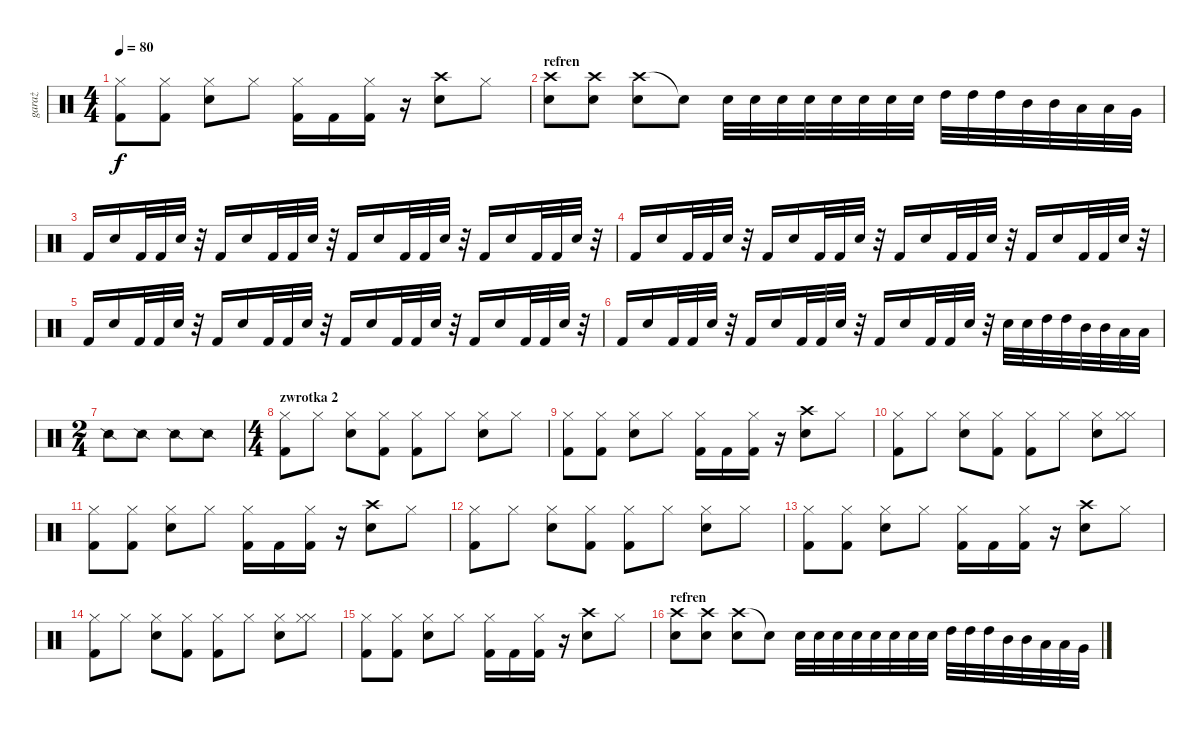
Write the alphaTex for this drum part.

\track ("garaż" "garaż") {instrument percussion}
\staff {score}
\articulation defaults
\ts (4 4)
\tempo 80
\clef neutral
\ks c
("Hi-Hat (closed)" "Kick (hit) 2").8{dy f} ("Hi-Hat (closed)" "Kick (hit) 2").8 ("Hi-Hat (closed)" "Snare (hit) 2").8 "Hi-Hat (closed)".8 ("Hi-Hat (closed)" "Kick (hit) 2").16 "Kick (hit) 2".16 ("Hi-Hat (closed)" "Kick (hit) 2").16 r.16 ("Crash high (hit)" "Snare (hit) 2").8 "Hi-Hat (closed)".8 |
\section ("" "refren")
("Crash high (hit)" "Snare (hit) 2").8 ("Crash high (hit)" "Snare (hit) 2").8 ("Crash high (hit)" "Snare (hit) 2").8 "Snare (hit)"{t}.8 "Snare (hit) 2".32 "Snare (hit) 2".32 "Snare (hit) 2".32 "Snare (hit) 2".32 "Snare (hit) 2".32 "Snare (hit) 2".32 "Snare (hit) 2".32 "Snare (hit) 2".32 "High Tom (hit)".32 "High Tom (hit)".32 "High Tom (hit)".32 "Mid Tom (hit)".32 "Mid Tom (hit)".32 "Low Tom (hit)".32 "Low Tom (hit)".32 "Very Low Tom (hit)".32 |
"Kick (hit) 2".16 "Snare (hit) 2".16 "Kick (hit) 2".32 "Kick (hit) 2".32 "Snare (hit) 2".32 r.32 "Kick (hit) 2".16 "Snare (hit) 2".16 "Kick (hit) 2".32 "Kick (hit) 2".32 "Snare (hit) 2".32 r.32 "Kick (hit) 2".16 "Snare (hit) 2".16 "Kick (hit) 2".32 "Kick (hit) 2".32 "Snare (hit) 2".32 r.32 "Kick (hit) 2".16 "Snare (hit) 2".16 "Kick (hit) 2".32 "Kick (hit) 2".32 "Snare (hit) 2".32 r.32 |
"Kick (hit) 2".16 "Snare (hit) 2".16 "Kick (hit) 2".32 "Kick (hit) 2".32 "Snare (hit) 2".32 r.32 "Kick (hit) 2".16 "Snare (hit) 2".16 "Kick (hit) 2".32 "Kick (hit) 2".32 "Snare (hit) 2".32 r.32 "Kick (hit) 2".16 "Snare (hit) 2".16 "Kick (hit) 2".32 "Kick (hit) 2".32 "Snare (hit) 2".32 r.32 "Kick (hit) 2".16 "Snare (hit) 2".16 "Kick (hit) 2".32 "Kick (hit) 2".32 "Snare (hit) 2".32 r.32 |
"Kick (hit) 2".16 "Snare (hit) 2".16 "Kick (hit) 2".32 "Kick (hit) 2".32 "Snare (hit) 2".32 r.32 "Kick (hit) 2".16 "Snare (hit) 2".16 "Kick (hit) 2".32 "Kick (hit) 2".32 "Snare (hit) 2".32 r.32 "Kick (hit) 2".16 "Snare (hit) 2".16 "Kick (hit) 2".32 "Kick (hit) 2".32 "Snare (hit) 2".32 r.32 "Kick (hit) 2".16 "Snare (hit) 2".16 "Kick (hit) 2".32 "Kick (hit) 2".32 "Snare (hit) 2".32 r.32 |
"Kick (hit) 2".16 "Snare (hit) 2".16 "Kick (hit) 2".32 "Kick (hit) 2".32 "Snare (hit) 2".32 r.32 "Kick (hit) 2".16 "Snare (hit) 2".16 "Kick (hit) 2".32 "Kick (hit) 2".32 "Snare (hit) 2".32 r.32 "Kick (hit) 2".16 "Snare (hit) 2".16 "Kick (hit) 2".32 "Kick (hit) 2".32 "Snare (hit) 2".32 r.32 "Snare (hit) 2".32 "Snare (hit) 2".32 "High Tom (hit)".32 "High Tom (hit)".32 "Mid Tom (hit)".32 "Mid Tom (hit)".32 "Low Tom (hit)".32 "Low Tom (hit)".32 |
\ts (2 4)
"Snare (side stick) 2".8 "Snare (side stick) 2".8 "Snare (side stick) 2".8 "Snare (side stick) 2".8 |
\ts (4 4)
\section ("" "zwrotka 2")
("Hi-Hat (closed)" "Kick (hit) 2").8 "Hi-Hat (closed)".8 ("Hi-Hat (closed)" "Snare (hit) 2").8 ("Hi-Hat (closed)" "Kick (hit) 2").8 ("Hi-Hat (closed)" "Kick (hit) 2").8 "Hi-Hat (closed)".8 ("Hi-Hat (closed)" "Snare (hit) 2").8 "Hi-Hat (closed)".8 |
("Hi-Hat (closed)" "Kick (hit) 2").8 ("Hi-Hat (closed)" "Kick (hit) 2").8 ("Hi-Hat (closed)" "Snare (hit) 2").8 "Hi-Hat (closed)".8 ("Hi-Hat (closed)" "Kick (hit) 2").16 "Kick (hit) 2".16 ("Hi-Hat (closed)" "Kick (hit) 2").16 r.16 ("Crash high (hit)" "Snare (hit) 2").8 "Hi-Hat (closed)".8 |
("Hi-Hat (closed)" "Kick (hit) 2").8 "Hi-Hat (closed)".8 ("Hi-Hat (closed)" "Snare (hit) 2").8 ("Hi-Hat (closed)" "Kick (hit) 2").8 ("Hi-Hat (closed)" "Kick (hit) 2").8 "Hi-Hat (closed)".8 ("Hi-Hat (closed)" "Snare (hit) 2").8 ("Hi-Hat (closed)" "Hi-Hat (closed)").8 |
("Hi-Hat (closed)" "Kick (hit) 2").8 ("Hi-Hat (closed)" "Kick (hit) 2").8 ("Hi-Hat (closed)" "Snare (hit) 2").8 "Hi-Hat (closed)".8 ("Hi-Hat (closed)" "Kick (hit) 2").16 "Kick (hit) 2".16 ("Hi-Hat (closed)" "Kick (hit) 2").16 r.16 ("Crash high (hit)" "Snare (hit) 2").8 "Hi-Hat (closed)".8 |
("Hi-Hat (closed)" "Kick (hit) 2").8 "Hi-Hat (closed)".8 ("Hi-Hat (closed)" "Snare (hit) 2").8 ("Hi-Hat (closed)" "Kick (hit) 2").8 ("Hi-Hat (closed)" "Kick (hit) 2").8 "Hi-Hat (closed)".8 ("Hi-Hat (closed)" "Snare (hit) 2").8 "Hi-Hat (closed)".8 |
("Hi-Hat (closed)" "Kick (hit) 2").8 ("Hi-Hat (closed)" "Kick (hit) 2").8 ("Hi-Hat (closed)" "Snare (hit) 2").8 "Hi-Hat (closed)".8 ("Hi-Hat (closed)" "Kick (hit) 2").16 "Kick (hit) 2".16 ("Hi-Hat (closed)" "Kick (hit) 2").16 r.16 ("Crash high (hit)" "Snare (hit) 2").8 "Hi-Hat (closed)".8 |
("Hi-Hat (closed)" "Kick (hit) 2").8 "Hi-Hat (closed)".8 ("Hi-Hat (closed)" "Snare (hit) 2").8 ("Hi-Hat (closed)" "Kick (hit) 2").8 ("Hi-Hat (closed)" "Kick (hit) 2").8 "Hi-Hat (closed)".8 ("Hi-Hat (closed)" "Snare (hit) 2").8 ("Hi-Hat (closed)" "Hi-Hat (closed)").8 |
("Hi-Hat (closed)" "Kick (hit) 2").8 ("Hi-Hat (closed)" "Kick (hit) 2").8 ("Hi-Hat (closed)" "Snare (hit) 2").8 "Hi-Hat (closed)".8 ("Hi-Hat (closed)" "Kick (hit) 2").16 "Kick (hit) 2".16 ("Hi-Hat (closed)" "Kick (hit) 2").16 r.16 ("Crash high (hit)" "Snare (hit) 2").8 "Hi-Hat (closed)".8 |
\section ("" "refren")
("Crash high (hit)" "Snare (hit) 2").8 ("Crash high (hit)" "Snare (hit) 2").8 ("Crash high (hit)" "Snare (hit) 2").8 "Snare (hit)"{t}.8 "Snare (hit) 2".32 "Snare (hit) 2".32 "Snare (hit) 2".32 "Snare (hit) 2".32 "Snare (hit) 2".32 "Snare (hit) 2".32 "Snare (hit) 2".32 "Snare (hit) 2".32 "High Tom (hit)".32 "High Tom (hit)".32 "High Tom (hit)".32 "Mid Tom (hit)".32 "Mid Tom (hit)".32 "Low Tom (hit)".32 "Low Tom (hit)".32 "Very Low Tom (hit)".32
